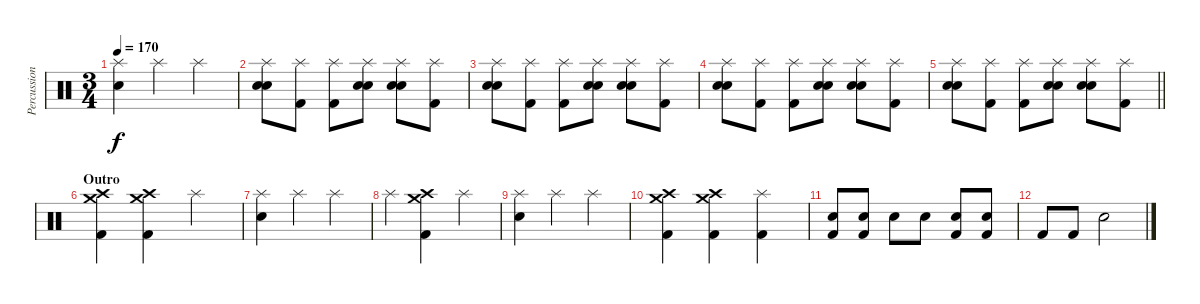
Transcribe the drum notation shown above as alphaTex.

\track ("Percussion" "Percussion") {instrument percussion}
\staff {score}
\articulation defaults
\ts (3 4)
\tempo 170
\clef neutral
\ks c
("Splash (hit)" "Electric Snare (hit)").4{dy f} "Splash (hit)".4 "Splash (hit)".4 |
("Splash (hit)" "Electric Snare (hit)" "Electric Snare (hit)").8 ("Splash (hit)" "Kick (hit) 2").8 ("Splash (hit)" "Kick (hit) 2").8 ("Splash (hit)" "Electric Snare (hit)" "Electric Snare (hit)").8 ("Splash (hit)" "Electric Snare (hit)" "Electric Snare (hit)").8 ("Splash (hit)" "Kick (hit) 2").8 |
("Splash (hit)" "Electric Snare (hit)" "Electric Snare (hit)").8 ("Splash (hit)" "Kick (hit) 2").8 ("Splash (hit)" "Kick (hit) 2").8 ("Splash (hit)" "Electric Snare (hit)" "Electric Snare (hit)").8 ("Splash (hit)" "Electric Snare (hit)" "Electric Snare (hit)").8 ("Splash (hit)" "Kick (hit) 2").8 |
("Splash (hit)" "Electric Snare (hit)" "Electric Snare (hit)").8 ("Splash (hit)" "Kick (hit) 2").8 ("Splash (hit)" "Kick (hit) 2").8 ("Splash (hit)" "Electric Snare (hit)" "Electric Snare (hit)").8 ("Splash (hit)" "Electric Snare (hit)" "Electric Snare (hit)").8 ("Splash (hit)" "Kick (hit) 2").8 |
\barLineRight lightlight
("Splash (hit)" "Electric Snare (hit)" "Electric Snare (hit)").8 ("Splash (hit)" "Kick (hit) 2").8 ("Splash (hit)" "Kick (hit) 2").8 ("Splash (hit)" "Electric Snare (hit)" "Electric Snare (hit)").8 ("Splash (hit)" "Electric Snare (hit)" "Electric Snare (hit)").8 ("Splash (hit)" "Kick (hit) 2").8 |
\section ("" "Outro")
("Crash medium (hit)" "Crash high (hit)" "Kick (hit) 2").4 ("Crash medium (hit)" "Crash high (hit)" "Kick (hit) 2").4 "Splash (hit)".4 |
("Splash (hit)" "Electric Snare (hit)").4 "Splash (hit)".4 "Splash (hit)".4 |
"Splash (hit)".4 ("Crash medium (hit)" "Crash high (hit)" "Kick (hit) 2").4 "Splash (hit)".4 |
("Splash (hit)" "Electric Snare (hit)").4 "Splash (hit)".4 "Splash (hit)".4 |
("Crash medium (hit)" "Crash high (hit)" "Kick (hit) 2").4 ("Crash medium (hit)" "Crash high (hit)" "Kick (hit) 2").4 ("Splash (hit)" "Kick (hit) 2").4 |
("Electric Snare (hit)" "Kick (hit) 2").8 ("Electric Snare (hit)" "Kick (hit) 2").8 "Electric Snare (hit)".8 "Electric Snare (hit)".8 ("Electric Snare (hit)" "Kick (hit) 2").8 ("Electric Snare (hit)" "Kick (hit) 2").8 |
"Kick (hit) 2".8 "Kick (hit) 2".8 "Electric Snare (hit)".2
